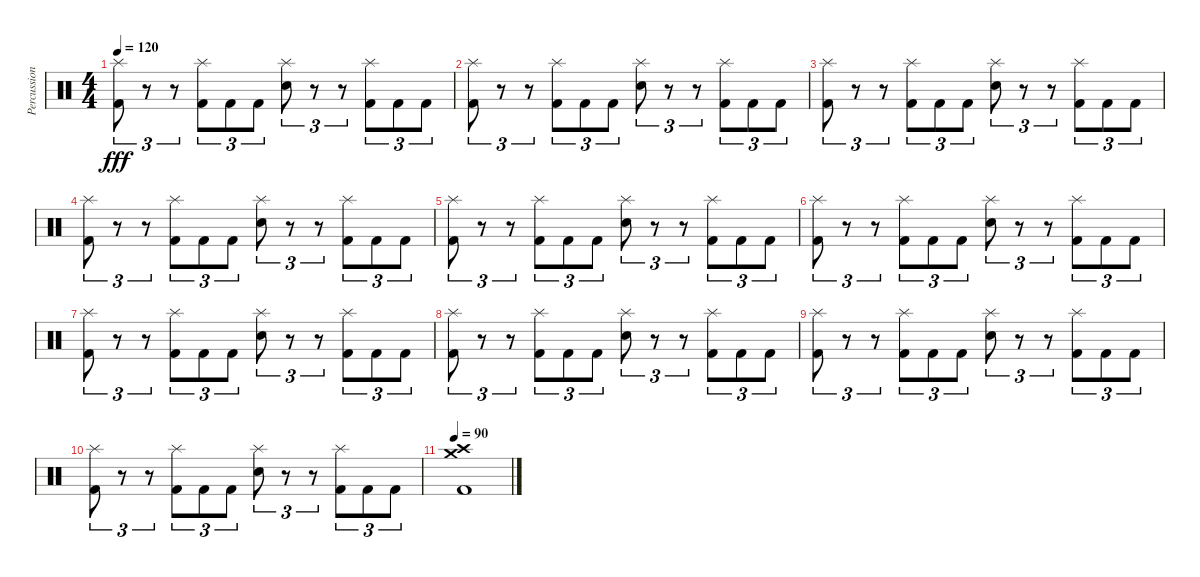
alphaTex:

\track ("Percussions" "Percussion") {instrument percussion}
\staff {score}
\articulation defaults
\ts (4 4)
\tempo 120
\clef neutral
\ks c
("Splash (hit)" "Kick (hit) 2").8{tu (3 2) dy fff} r.8{tu (3 2)} r.8{tu (3 2)} ("Splash (hit)" "Kick (hit) 2").8{tu (3 2)} "Kick (hit) 2".8{tu (3 2)} "Kick (hit) 2".8{tu (3 2)} ("Splash (hit)" "Snare (hit) 2").8{tu (3 2)} r.8{tu (3 2)} r.8{tu (3 2)} ("Splash (hit)" "Kick (hit) 2").8{tu (3 2)} "Kick (hit) 2".8{tu (3 2)} "Kick (hit) 2".8{tu (3 2)} |
("Splash (hit)" "Kick (hit) 2").8{tu (3 2)} r.8{tu (3 2)} r.8{tu (3 2)} ("Splash (hit)" "Kick (hit) 2").8{tu (3 2)} "Kick (hit) 2".8{tu (3 2)} "Kick (hit) 2".8{tu (3 2)} ("Splash (hit)" "Snare (hit) 2").8{tu (3 2)} r.8{tu (3 2)} r.8{tu (3 2)} ("Splash (hit)" "Kick (hit) 2").8{tu (3 2)} "Kick (hit) 2".8{tu (3 2)} "Kick (hit) 2".8{tu (3 2)} |
("Splash (hit)" "Kick (hit) 2").8{tu (3 2)} r.8{tu (3 2)} r.8{tu (3 2)} ("Splash (hit)" "Kick (hit) 2").8{tu (3 2)} "Kick (hit) 2".8{tu (3 2)} "Kick (hit) 2".8{tu (3 2)} ("Splash (hit)" "Snare (hit) 2").8{tu (3 2)} r.8{tu (3 2)} r.8{tu (3 2)} ("Splash (hit)" "Kick (hit) 2").8{tu (3 2)} "Kick (hit) 2".8{tu (3 2)} "Kick (hit) 2".8{tu (3 2)} |
("Splash (hit)" "Kick (hit) 2").8{tu (3 2)} r.8{tu (3 2)} r.8{tu (3 2)} ("Splash (hit)" "Kick (hit) 2").8{tu (3 2)} "Kick (hit) 2".8{tu (3 2)} "Kick (hit) 2".8{tu (3 2)} ("Splash (hit)" "Snare (hit) 2").8{tu (3 2)} r.8{tu (3 2)} r.8{tu (3 2)} ("Splash (hit)" "Kick (hit) 2").8{tu (3 2)} "Kick (hit) 2".8{tu (3 2)} "Kick (hit) 2".8{tu (3 2)} |
("Splash (hit)" "Kick (hit) 2").8{tu (3 2)} r.8{tu (3 2)} r.8{tu (3 2)} ("Splash (hit)" "Kick (hit) 2").8{tu (3 2)} "Kick (hit) 2".8{tu (3 2)} "Kick (hit) 2".8{tu (3 2)} ("Splash (hit)" "Snare (hit) 2").8{tu (3 2)} r.8{tu (3 2)} r.8{tu (3 2)} ("Splash (hit)" "Kick (hit) 2").8{tu (3 2)} "Kick (hit) 2".8{tu (3 2)} "Kick (hit) 2".8{tu (3 2)} |
("Splash (hit)" "Kick (hit) 2").8{tu (3 2)} r.8{tu (3 2)} r.8{tu (3 2)} ("Splash (hit)" "Kick (hit) 2").8{tu (3 2)} "Kick (hit) 2".8{tu (3 2)} "Kick (hit) 2".8{tu (3 2)} ("Splash (hit)" "Snare (hit) 2").8{tu (3 2)} r.8{tu (3 2)} r.8{tu (3 2)} ("Splash (hit)" "Kick (hit) 2").8{tu (3 2)} "Kick (hit) 2".8{tu (3 2)} "Kick (hit) 2".8{tu (3 2)} |
("Splash (hit)" "Kick (hit) 2").8{tu (3 2)} r.8{tu (3 2)} r.8{tu (3 2)} ("Splash (hit)" "Kick (hit) 2").8{tu (3 2)} "Kick (hit) 2".8{tu (3 2)} "Kick (hit) 2".8{tu (3 2)} ("Splash (hit)" "Snare (hit) 2").8{tu (3 2)} r.8{tu (3 2)} r.8{tu (3 2)} ("Splash (hit)" "Kick (hit) 2").8{tu (3 2)} "Kick (hit) 2".8{tu (3 2)} "Kick (hit) 2".8{tu (3 2)} |
("Splash (hit)" "Kick (hit) 2").8{tu (3 2)} r.8{tu (3 2)} r.8{tu (3 2)} ("Splash (hit)" "Kick (hit) 2").8{tu (3 2)} "Kick (hit) 2".8{tu (3 2)} "Kick (hit) 2".8{tu (3 2)} ("Splash (hit)" "Snare (hit) 2").8{tu (3 2)} r.8{tu (3 2)} r.8{tu (3 2)} ("Splash (hit)" "Kick (hit) 2").8{tu (3 2)} "Kick (hit) 2".8{tu (3 2)} "Kick (hit) 2".8{tu (3 2)} |
("Splash (hit)" "Kick (hit) 2").8{tu (3 2)} r.8{tu (3 2)} r.8{tu (3 2)} ("Splash (hit)" "Kick (hit) 2").8{tu (3 2)} "Kick (hit) 2".8{tu (3 2)} "Kick (hit) 2".8{tu (3 2)} ("Splash (hit)" "Snare (hit) 2").8{tu (3 2)} r.8{tu (3 2)} r.8{tu (3 2)} ("Splash (hit)" "Kick (hit) 2").8{tu (3 2)} "Kick (hit) 2".8{tu (3 2)} "Kick (hit) 2".8{tu (3 2)} |
("Splash (hit)" "Kick (hit) 2").8{tu (3 2)} r.8{tu (3 2)} r.8{tu (3 2)} ("Splash (hit)" "Kick (hit) 2").8{tu (3 2)} "Kick (hit) 2".8{tu (3 2)} "Kick (hit) 2".8{tu (3 2)} ("Splash (hit)" "Snare (hit) 2").8{tu (3 2)} r.8{tu (3 2)} r.8{tu (3 2)} ("Splash (hit)" "Kick (hit) 2").8{tu (3 2)} "Kick (hit) 2".8{tu (3 2)} "Kick (hit) 2".8{tu (3 2)} |
\tempo 90
("Crash high (hit)" "Crash medium (hit)" "Kick (hit) 2").1
